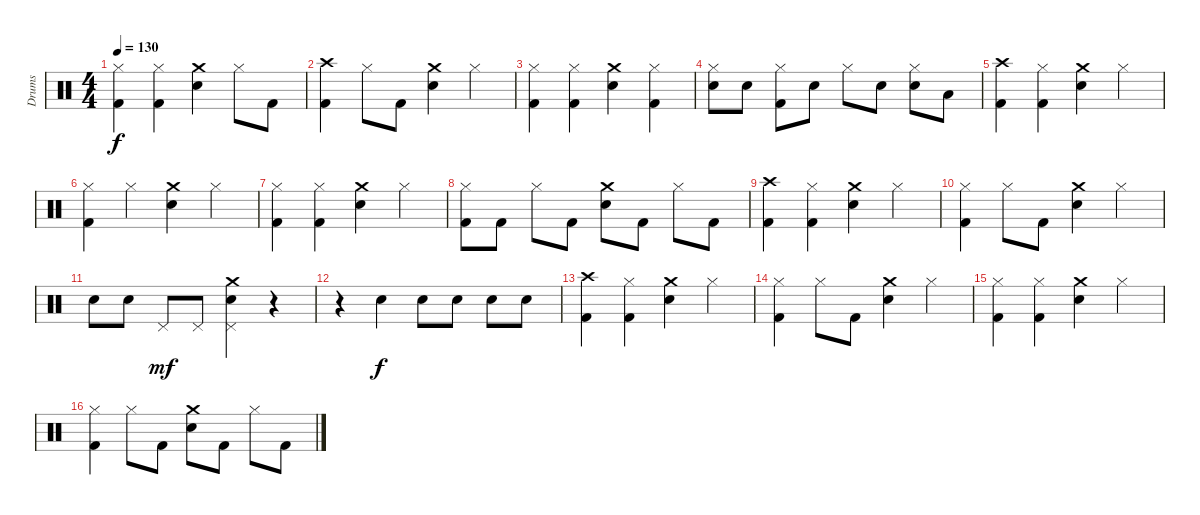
\track ("Drums" "Drums") {instrument percussion}
\staff {score}
\articulation defaults
\ts (4 4)
\tempo 130
\clef neutral
\ks c
("Hi-Hat (closed)" "Kick (hit) 2").4{dy f} ("Hi-Hat (closed)" "Kick (hit) 2").4 ("Crash medium (hit)" "Snare (hit) 2").4 "Hi-Hat (closed)".8 "Kick (hit) 2".8 |
("Crash high (hit)" "Kick (hit) 2").4 "Hi-Hat (closed)".8 "Kick (hit) 2".8 ("Crash medium (hit)" "Snare (hit) 2").4 "Hi-Hat (closed)".4 |
("Hi-Hat (closed)" "Kick (hit) 2").4 ("Hi-Hat (closed)" "Kick (hit) 2").4 ("Crash medium (hit)" "Snare (hit) 2").4 ("Hi-Hat (closed)" "Kick (hit) 2").4 |
("Hi-Hat (closed)" "Snare (hit) 2").8 "Snare (hit) 2".8 ("Hi-Hat (closed)" "Kick (hit) 2").8 "Snare (hit) 2".8 "Hi-Hat (closed)".8 "Snare (hit) 2".8 ("Hi-Hat (closed)" "Snare (hit) 2").8 "Low Tom (hit)".8 |
("Crash high (hit)" "Kick (hit) 2").4 ("Hi-Hat (closed)" "Kick (hit) 2").4 ("Crash medium (hit)" "Snare (hit) 2").4 "Hi-Hat (closed)".4 |
("Hi-Hat (closed)" "Kick (hit) 2").4 "Hi-Hat (closed)".4 ("Crash medium (hit)" "Snare (hit) 2").4 "Hi-Hat (closed)".4 |
("Hi-Hat (closed)" "Kick (hit) 2").4 ("Hi-Hat (closed)" "Kick (hit) 2").4 ("Crash medium (hit)" "Snare (hit) 2").4 "Hi-Hat (closed)".4 |
("Hi-Hat (closed)" "Kick (hit) 2").8 "Kick (hit) 2".8 "Hi-Hat (closed)".8 "Kick (hit) 2".8 ("Crash medium (hit)" "Snare (hit) 2").8 "Kick (hit) 2".8 "Hi-Hat (closed)".8 "Kick (hit) 2".8 |
("Crash high (hit)" "Kick (hit) 2").4 ("Hi-Hat (closed)" "Kick (hit) 2").4 ("Crash medium (hit)" "Snare (hit) 2").4 "Hi-Hat (closed)".4 |
("Hi-Hat (closed)" "Kick (hit) 2").4 "Hi-Hat (closed)".8 "Kick (hit) 2".8 ("Crash medium (hit)" "Snare (hit) 2").4 "Hi-Hat (closed)".4 |
"Snare (hit) 2".8 "Snare (hit) 2".8 "Pedal Hi-Hat (hit)".8{dy mf} "Pedal Hi-Hat (hit)".8 ("Crash medium (hit)" "Snare (hit) 2" "Pedal Hi-Hat (hit)").4 r.4 |
r.4 "Snare (hit) 2".4{dy f} "Snare (hit) 2".8 "Snare (hit) 2".8 "Snare (hit) 2".8 "Snare (hit) 2".8 |
("Crash high (hit)" "Kick (hit) 2").4 ("Hi-Hat (closed)" "Kick (hit) 2").4 ("Crash medium (hit)" "Snare (hit) 2").4 "Hi-Hat (closed)".4 |
("Hi-Hat (closed)" "Kick (hit) 2").4 "Hi-Hat (closed)".8 "Kick (hit) 2".8 ("Crash medium (hit)" "Snare (hit) 2").4 "Hi-Hat (closed)".4 |
("Hi-Hat (closed)" "Kick (hit) 2").4 ("Hi-Hat (closed)" "Kick (hit) 2").4 ("Crash medium (hit)" "Snare (hit) 2").4 "Hi-Hat (closed)".4 |
("Hi-Hat (closed)" "Kick (hit) 2").4 "Hi-Hat (closed)".8 "Kick (hit) 2".8 ("Crash medium (hit)" "Snare (hit) 2").8 "Kick (hit) 2".8 "Hi-Hat (closed)".8 "Kick (hit) 2".8
